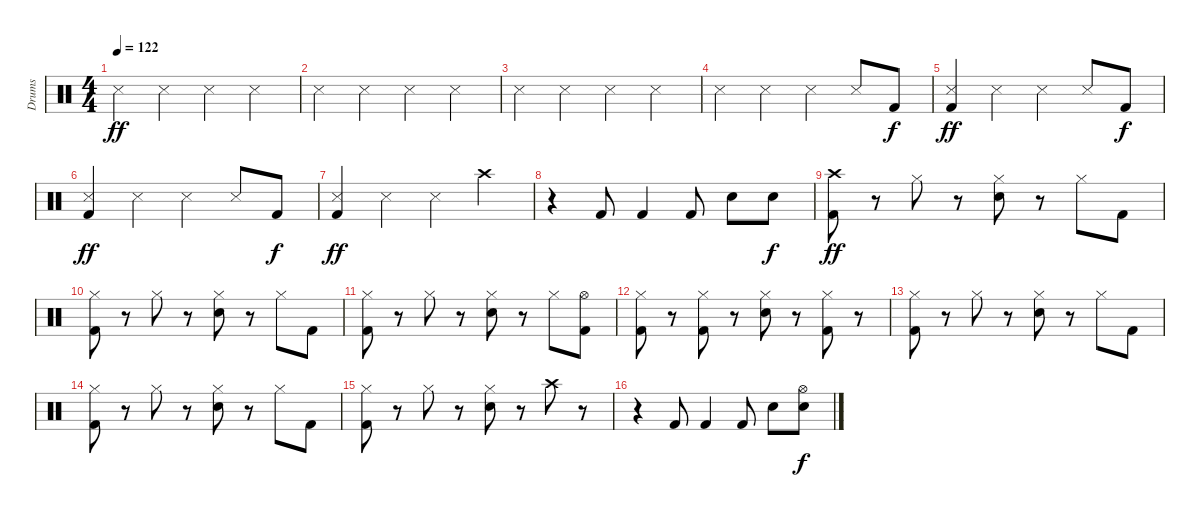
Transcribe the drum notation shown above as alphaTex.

\track ("Drums" "Drums") {instrument percussion}
\staff {score}
\articulation defaults
\ts (4 4)
\tempo 122
\clef neutral
\ks c "Snare (side stick) 3".4{dy ff} "Snare (side stick) 3".4 "Snare (side stick) 3".4 "Snare (side stick) 3".4
|
"Snare (side stick) 3".4 "Snare (side stick) 3".4 "Snare (side stick) 3".4 "Snare (side stick) 3".4 |
"Snare (side stick) 3".4 "Snare (side stick) 3".4 "Snare (side stick) 3".4 "Snare (side stick) 3".4 |
"Snare (side stick) 3".4 "Snare (side stick) 3".4 "Snare (side stick) 3".4 "Snare (side stick) 3".8 "Kick (hit) 2".8{dy f} |
("Snare (side stick) 3" "Kick (hit) 2").4{dy ff} "Snare (side stick) 3".4 "Snare (side stick) 3".4 "Snare (side stick) 3".8 "Kick (hit) 2".8{dy f} |
("Snare (side stick) 3" "Kick (hit) 2").4{dy ff} "Snare (side stick) 3".4 "Snare (side stick) 3".4 "Snare (side stick) 3".8 "Kick (hit) 2".8{dy f} |
("Snare (side stick) 3" "Kick (hit) 2").4{dy ff} "Snare (side stick) 3".4 "Snare (side stick) 3".4 "Crash high (hit)".4 |
r.4 "Kick (hit) 2".8 "Kick (hit) 2".4 "Kick (hit) 2".8 "Snare (hit) 2".8 "Snare (hit) 2".8{dy f} |
("Crash high (hit)" "Kick (hit) 2").8{dy ff} r.8 "Hi-Hat (closed)".8 r.8 ("Hi-Hat (closed)" "Snare (hit) 2").8 r.8 "Hi-Hat (closed)".8 "Kick (hit) 2".8 |
("Hi-Hat (closed)" "Kick (hit) 2").8 r.8 "Hi-Hat (closed)".8 r.8 ("Hi-Hat (closed)" "Snare (hit) 2").8 r.8 "Hi-Hat (closed)".8 "Kick (hit) 2".8 |
("Hi-Hat (closed)" "Kick (hit) 2").8 r.8 "Hi-Hat (closed)".8 r.8 ("Hi-Hat (closed)" "Snare (hit) 2").8 r.8 "Hi-Hat (closed)".8 ("Hi-Hat (open)" "Kick (hit) 2").8 |
("Hi-Hat (closed)" "Kick (hit) 2").8 r.8 ("Hi-Hat (closed)" "Kick (hit) 2").8 r.8 ("Hi-Hat (closed)" "Snare (hit) 2").8 r.8 ("Hi-Hat (closed)" "Kick (hit) 2").8 r.8 |
("Hi-Hat (closed)" "Kick (hit) 2").8 r.8 "Hi-Hat (closed)".8 r.8 ("Hi-Hat (closed)" "Snare (hit) 2").8 r.8 "Hi-Hat (closed)".8 "Kick (hit) 2".8 |
("Hi-Hat (closed)" "Kick (hit) 2").8 r.8 "Hi-Hat (closed)".8 r.8 ("Hi-Hat (closed)" "Snare (hit) 2").8 r.8 "Hi-Hat (closed)".8 "Kick (hit) 2".8 |
("Hi-Hat (closed)" "Kick (hit) 2").8 r.8 "Hi-Hat (closed)".8 r.8 ("Hi-Hat (closed)" "Snare (hit) 2").8 r.8 "Crash high (hit)".8 r.8 |
r.4 "Kick (hit) 2".8 "Kick (hit) 2".4 "Kick (hit) 2".8 "Snare (hit) 2".8 ("Hi-Hat (open)" "Snare (hit) 2").8{dy f}
